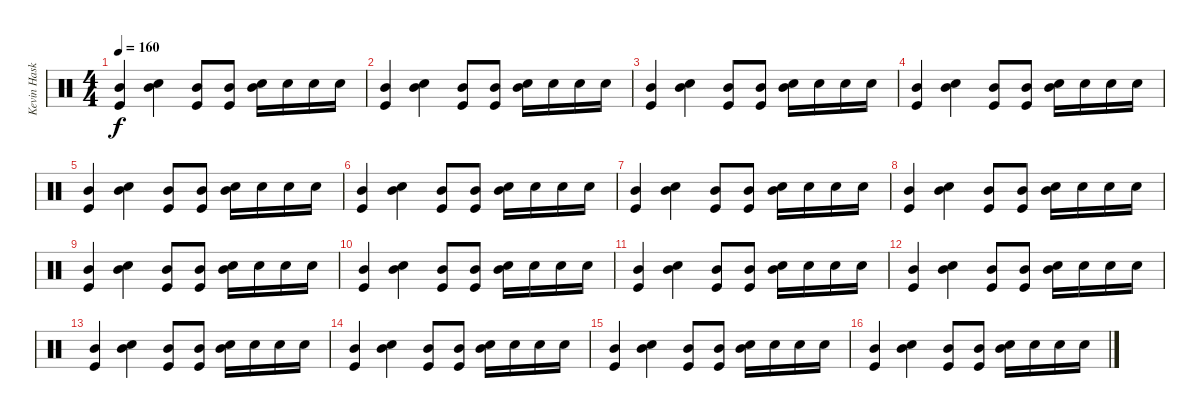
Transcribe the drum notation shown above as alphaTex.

\track ("Kevin Haskins" "Kevin Hask") {instrument percussion}
\staff {score}
\articulation defaults
\ts (4 4)
\tempo 160
\clef neutral
\ks c
("Mid Tom (hit)" "Kick (hit)").4{dy f} ("Snare (hit) 2" "Mid Tom (hit)").4 ("Mid Tom (hit)" "Kick (hit)").8 ("Mid Tom (hit)" "Kick (hit)").8 ("Snare (hit) 2" "Mid Tom (hit)").16 "Snare (hit) 2".16 "Snare (hit) 2".16 "Snare (hit) 2".16 |
("Mid Tom (hit)" "Kick (hit)").4 ("Snare (hit) 2" "Mid Tom (hit)").4 ("Mid Tom (hit)" "Kick (hit)").8 ("Mid Tom (hit)" "Kick (hit)").8 ("Snare (hit) 2" "Mid Tom (hit)").16 "Snare (hit) 2".16 "Snare (hit) 2".16 "Snare (hit) 2".16 |
("Mid Tom (hit)" "Kick (hit)").4 ("Snare (hit) 2" "Mid Tom (hit)").4 ("Mid Tom (hit)" "Kick (hit)").8 ("Mid Tom (hit)" "Kick (hit)").8 ("Snare (hit) 2" "Mid Tom (hit)").16 "Snare (hit) 2".16 "Snare (hit) 2".16 "Snare (hit) 2".16 |
("Mid Tom (hit)" "Kick (hit)").4 ("Snare (hit) 2" "Mid Tom (hit)").4 ("Mid Tom (hit)" "Kick (hit)").8 ("Mid Tom (hit)" "Kick (hit)").8 ("Snare (hit) 2" "Mid Tom (hit)").16 "Snare (hit) 2".16 "Snare (hit) 2".16 "Snare (hit) 2".16 |
("Mid Tom (hit)" "Kick (hit)").4 ("Snare (hit) 2" "Mid Tom (hit)").4 ("Mid Tom (hit)" "Kick (hit)").8 ("Mid Tom (hit)" "Kick (hit)").8 ("Snare (hit) 2" "Mid Tom (hit)").16 "Snare (hit) 2".16 "Snare (hit) 2".16 "Snare (hit) 2".16 |
("Mid Tom (hit)" "Kick (hit)").4 ("Snare (hit) 2" "Mid Tom (hit)").4 ("Mid Tom (hit)" "Kick (hit)").8 ("Mid Tom (hit)" "Kick (hit)").8 ("Snare (hit) 2" "Mid Tom (hit)").16 "Snare (hit) 2".16 "Snare (hit) 2".16 "Snare (hit) 2".16 |
("Mid Tom (hit)" "Kick (hit)").4 ("Snare (hit) 2" "Mid Tom (hit)").4 ("Mid Tom (hit)" "Kick (hit)").8 ("Mid Tom (hit)" "Kick (hit)").8 ("Snare (hit) 2" "Mid Tom (hit)").16 "Snare (hit) 2".16 "Snare (hit) 2".16 "Snare (hit) 2".16 |
("Mid Tom (hit)" "Kick (hit)").4 ("Snare (hit) 2" "Mid Tom (hit)").4 ("Mid Tom (hit)" "Kick (hit)").8 ("Mid Tom (hit)" "Kick (hit)").8 ("Snare (hit) 2" "Mid Tom (hit)").16 "Snare (hit) 2".16 "Snare (hit) 2".16 "Snare (hit) 2".16 |
("Mid Tom (hit)" "Kick (hit)").4 ("Snare (hit) 2" "Mid Tom (hit)").4 ("Mid Tom (hit)" "Kick (hit)").8 ("Mid Tom (hit)" "Kick (hit)").8 ("Snare (hit) 2" "Mid Tom (hit)").16 "Snare (hit) 2".16 "Snare (hit) 2".16 "Snare (hit) 2".16 |
("Mid Tom (hit)" "Kick (hit)").4 ("Snare (hit) 2" "Mid Tom (hit)").4 ("Mid Tom (hit)" "Kick (hit)").8 ("Mid Tom (hit)" "Kick (hit)").8 ("Snare (hit) 2" "Mid Tom (hit)").16 "Snare (hit) 2".16 "Snare (hit) 2".16 "Snare (hit) 2".16 |
("Mid Tom (hit)" "Kick (hit)").4 ("Snare (hit) 2" "Mid Tom (hit)").4 ("Mid Tom (hit)" "Kick (hit)").8 ("Mid Tom (hit)" "Kick (hit)").8 ("Snare (hit) 2" "Mid Tom (hit)").16 "Snare (hit) 2".16 "Snare (hit) 2".16 "Snare (hit) 2".16 |
("Mid Tom (hit)" "Kick (hit)").4 ("Snare (hit) 2" "Mid Tom (hit)").4 ("Mid Tom (hit)" "Kick (hit)").8 ("Mid Tom (hit)" "Kick (hit)").8 ("Snare (hit) 2" "Mid Tom (hit)").16 "Snare (hit) 2".16 "Snare (hit) 2".16 "Snare (hit) 2".16 |
("Mid Tom (hit)" "Kick (hit)").4 ("Snare (hit) 2" "Mid Tom (hit)").4 ("Mid Tom (hit)" "Kick (hit)").8 ("Mid Tom (hit)" "Kick (hit)").8 ("Snare (hit) 2" "Mid Tom (hit)").16 "Snare (hit) 2".16 "Snare (hit) 2".16 "Snare (hit) 2".16 |
("Mid Tom (hit)" "Kick (hit)").4 ("Snare (hit) 2" "Mid Tom (hit)").4 ("Mid Tom (hit)" "Kick (hit)").8 ("Mid Tom (hit)" "Kick (hit)").8 ("Snare (hit) 2" "Mid Tom (hit)").16 "Snare (hit) 2".16 "Snare (hit) 2".16 "Snare (hit) 2".16 |
("Mid Tom (hit)" "Kick (hit)").4 ("Snare (hit) 2" "Mid Tom (hit)").4 ("Mid Tom (hit)" "Kick (hit)").8 ("Mid Tom (hit)" "Kick (hit)").8 ("Snare (hit) 2" "Mid Tom (hit)").16 "Snare (hit) 2".16 "Snare (hit) 2".16 "Snare (hit) 2".16 |
("Mid Tom (hit)" "Kick (hit)").4 ("Snare (hit) 2" "Mid Tom (hit)").4 ("Mid Tom (hit)" "Kick (hit)").8 ("Mid Tom (hit)" "Kick (hit)").8 ("Snare (hit) 2" "Mid Tom (hit)").16 "Snare (hit) 2".16 "Snare (hit) 2".16 "Snare (hit) 2".16
